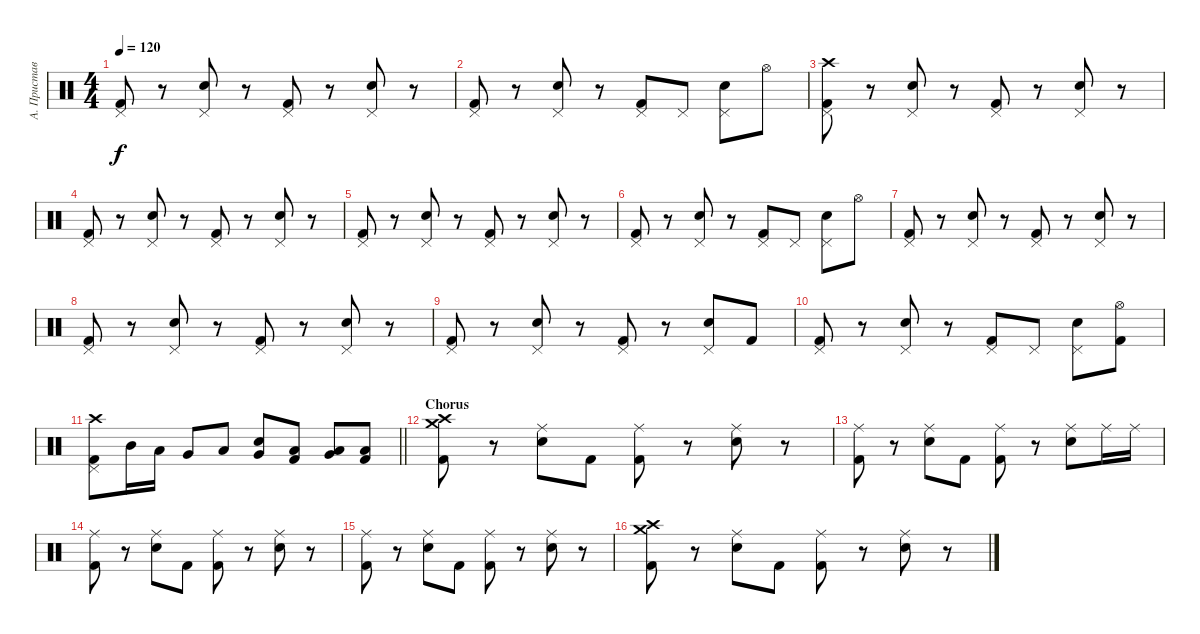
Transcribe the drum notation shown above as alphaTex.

\track ("А. Приставка" "А. Пристав") {instrument percussion}
\staff {score}
\articulation defaults
\ts (4 4)
\tempo 120
\clef neutral
\ks c
("Pedal Hi-Hat (hit)" "Kick (hit) 2").8{dy f} r.8 ("Pedal Hi-Hat (hit)" "Electric Snare (hit)").8 r.8 ("Pedal Hi-Hat (hit)" "Kick (hit) 2").8 r.8 ("Pedal Hi-Hat (hit)" "Electric Snare (hit)").8 r.8 |
("Pedal Hi-Hat (hit)" "Kick (hit) 2").8 r.8 ("Pedal Hi-Hat (hit)" "Electric Snare (hit)").8 r.8 ("Pedal Hi-Hat (hit)" "Kick (hit) 2").8 "Pedal Hi-Hat (hit)".8 ("Pedal Hi-Hat (hit)" "Electric Snare (hit)").8 "Hi-Hat (open)".8 |
("Crash high (hit)" "Pedal Hi-Hat (hit)" "Kick (hit) 2").8 r.8 ("Pedal Hi-Hat (hit)" "Electric Snare (hit)").8 r.8 ("Pedal Hi-Hat (hit)" "Kick (hit) 2").8 r.8 ("Pedal Hi-Hat (hit)" "Electric Snare (hit)").8 r.8 |
("Pedal Hi-Hat (hit)" "Kick (hit) 2").8 r.8 ("Pedal Hi-Hat (hit)" "Electric Snare (hit)").8 r.8 ("Pedal Hi-Hat (hit)" "Kick (hit) 2").8 r.8 ("Pedal Hi-Hat (hit)" "Electric Snare (hit)").8 r.8 |
("Pedal Hi-Hat (hit)" "Kick (hit) 2").8 r.8 ("Pedal Hi-Hat (hit)" "Electric Snare (hit)").8 r.8 ("Pedal Hi-Hat (hit)" "Kick (hit) 2").8 r.8 ("Pedal Hi-Hat (hit)" "Electric Snare (hit)").8 r.8 |
("Pedal Hi-Hat (hit)" "Kick (hit) 2").8 r.8 ("Pedal Hi-Hat (hit)" "Electric Snare (hit)").8 r.8 ("Pedal Hi-Hat (hit)" "Kick (hit) 2").8 "Pedal Hi-Hat (hit)".8 ("Pedal Hi-Hat (hit)" "Electric Snare (hit)").8 "Hi-Hat (open)".8 |
("Pedal Hi-Hat (hit)" "Kick (hit) 2").8 r.8 ("Pedal Hi-Hat (hit)" "Electric Snare (hit)").8 r.8 ("Pedal Hi-Hat (hit)" "Kick (hit) 2").8 r.8 ("Pedal Hi-Hat (hit)" "Electric Snare (hit)").8 r.8 |
("Pedal Hi-Hat (hit)" "Kick (hit) 2").8 r.8 ("Pedal Hi-Hat (hit)" "Electric Snare (hit)").8 r.8 ("Pedal Hi-Hat (hit)" "Kick (hit) 2").8 r.8 ("Pedal Hi-Hat (hit)" "Electric Snare (hit)").8 r.8 |
("Pedal Hi-Hat (hit)" "Kick (hit) 2").8 r.8 ("Pedal Hi-Hat (hit)" "Electric Snare (hit)").8 r.8 ("Pedal Hi-Hat (hit)" "Kick (hit) 2").8 r.8 ("Pedal Hi-Hat (hit)" "Electric Snare (hit)").8 "Kick (hit) 2".8 |
("Pedal Hi-Hat (hit)" "Kick (hit) 2").8 r.8 ("Pedal Hi-Hat (hit)" "Electric Snare (hit)").8 r.8 ("Pedal Hi-Hat (hit)" "Kick (hit) 2").8 "Pedal Hi-Hat (hit)".8 ("Pedal Hi-Hat (hit)" "Electric Snare (hit)").8 ("Hi-Hat (open)" "Kick (hit) 2").8 |
\barLineRight lightlight
("Crash high (hit)" "Pedal Hi-Hat (hit)" "Kick (hit) 2").8 "Mid Tom (hit)".16 "Low Tom (hit)".16 "Very Low Tom (hit)".8 "Low Floor Tom (hit)".8 ("Electric Snare (hit)" "Very Low Tom (hit)").8 ("Low Floor Tom (hit)" "Kick (hit) 2").8 ("Low Tom (hit)" "Very Low Tom (hit)").8 ("Low Floor Tom (hit)" "Kick (hit) 2").8 |
\section ("" "Chorus")
("Crash high (hit)" "Crash medium (hit)" "Kick (hit) 2").8 r.8 ("Ride (middle)" "Electric Snare (hit)").8 "Kick (hit) 2".8 ("Ride (middle)" "Kick (hit) 2").8 r.8 ("Ride (middle)" "Electric Snare (hit)").8 r.8 |
("Ride (middle)" "Kick (hit) 2").8 r.8 ("Ride (middle)" "Electric Snare (hit)").8 "Kick (hit) 2".8 ("Ride (middle)" "Kick (hit) 2").8 r.8 ("Ride (middle)" "Electric Snare (hit)").8 "Ride (middle)".16 "Ride (middle)".16 |
("Ride (middle)" "Kick (hit) 2").8 r.8 ("Ride (middle)" "Electric Snare (hit)").8 "Kick (hit) 2".8 ("Ride (middle)" "Kick (hit) 2").8 r.8 ("Ride (middle)" "Electric Snare (hit)").8 r.8 |
("Ride (middle)" "Kick (hit) 2").8 r.8 ("Ride (middle)" "Electric Snare (hit)").8 "Kick (hit) 2".8 ("Ride (middle)" "Kick (hit) 2").8 r.8 ("Ride (middle)" "Electric Snare (hit)").8 r.8 |
("Crash high (hit)" "Crash medium (hit)" "Kick (hit) 2").8 r.8 ("Ride (middle)" "Electric Snare (hit)").8 "Kick (hit) 2".8 ("Ride (middle)" "Kick (hit) 2").8 r.8 ("Ride (middle)" "Electric Snare (hit)").8 r.8
